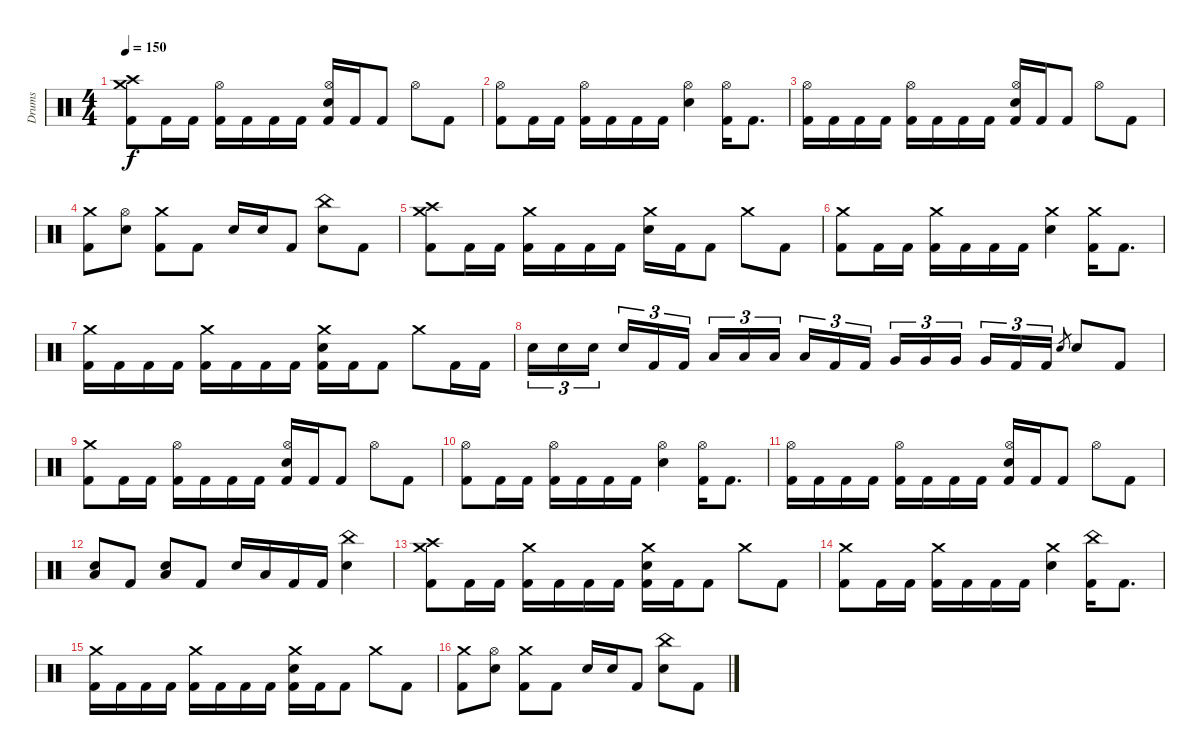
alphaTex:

\track ("Drums" "Drums") {instrument percussion}
\staff {score}
\articulation defaults
\ts (4 4)
\tempo 150
\clef neutral
\ks c
("Crash medium (hit)" "Crash high (hit)" "Kick (hit) 2").8{dy f} "Kick (hit) 2".16 "Kick (hit) 2".16 ("Hi-Hat (open)" "Kick (hit) 2").16 "Kick (hit) 2".16 "Kick (hit) 2".16 "Kick (hit) 2".16 ("Hi-Hat (open)" "Electric Snare (hit)" "Kick (hit) 2").16 "Kick (hit) 2".16 "Kick (hit) 2".8 "Hi-Hat (open)".8 "Kick (hit) 2".8 |
("Hi-Hat (open)" "Kick (hit) 2").8 "Kick (hit) 2".16 "Kick (hit) 2".16 ("Hi-Hat (open)" "Kick (hit) 2").16 "Kick (hit) 2".16 "Kick (hit) 2".16 "Kick (hit) 2".16 ("Hi-Hat (open)" "Electric Snare (hit)").4 ("Hi-Hat (open)" "Kick (hit) 2").16 "Kick (hit) 2".8{d} |
("Hi-Hat (open)" "Kick (hit) 2").16 "Kick (hit) 2".16 "Kick (hit) 2".16 "Kick (hit) 2".16 ("Hi-Hat (open)" "Kick (hit) 2").16 "Kick (hit) 2".16 "Kick (hit) 2".16 "Kick (hit) 2".16 ("Hi-Hat (open)" "Electric Snare (hit)" "Kick (hit) 2").16 "Kick (hit) 2".16 "Kick (hit) 2".8 "Hi-Hat (open)".8 "Kick (hit) 2".8 |
("Crash medium (hit)" "Kick (hit) 2").8 ("Hi-Hat (open)" "Electric Snare (hit)").8 ("Crash medium (hit)" "Kick (hit) 2").8 "Kick (hit) 2".8 "Electric Snare (hit)".16 "Electric Snare (hit)".16 "Kick (hit) 2".8 ("China (hit)" "Electric Snare (hit)").8 "Kick (hit) 2".8 |
("Crash medium (hit)" "Crash high (hit)" "Kick (hit) 2").8 "Kick (hit) 2".16 "Kick (hit) 2".16 ("Crash medium (hit)" "Kick (hit) 2").16 "Kick (hit) 2".16 "Kick (hit) 2".16 "Kick (hit) 2".16 ("Crash medium (hit)" "Electric Snare (hit)").16 "Kick (hit) 2".16 "Kick (hit) 2".8 "Crash medium (hit)".8 "Kick (hit) 2".8 |
("Crash medium (hit)" "Kick (hit) 2").8 "Kick (hit) 2".16 "Kick (hit) 2".16 ("Crash medium (hit)" "Kick (hit) 2").16 "Kick (hit) 2".16 "Kick (hit) 2".16 "Kick (hit) 2".16 ("Crash medium (hit)" "Electric Snare (hit)").4 ("Crash medium (hit)" "Kick (hit) 2").16 "Kick (hit) 2".8{d} |
("Crash medium (hit)" "Kick (hit) 2").16 "Kick (hit) 2".16 "Kick (hit) 2".16 "Kick (hit) 2".16 ("Crash medium (hit)" "Kick (hit) 2").16 "Kick (hit) 2".16 "Kick (hit) 2".16 "Kick (hit) 2".16 ("Crash medium (hit)" "Electric Snare (hit)" "Kick (hit) 2").16 "Kick (hit) 2".16 "Kick (hit) 2".8 "Crash medium (hit)".8 "Kick (hit) 2".16 "Kick (hit) 2".16 |
"Electric Snare (hit)".16{tu (3 2)} "Electric Snare (hit)".16{tu (3 2)} "Electric Snare (hit)".16{tu (3 2) beam splitsecondary} "Electric Snare (hit)".16{tu (3 2)} "Kick (hit) 2".16{tu (3 2)} "Kick (hit) 2".16{tu (3 2)} "Low Tom (hit)".16{tu (3 2)} "Low Tom (hit)".16{tu (3 2)} "Low Tom (hit)".16{tu (3 2) beam splitsecondary} "Low Tom (hit)".16{tu (3 2)} "Kick (hit) 2".16{tu (3 2)} "Kick (hit) 2".16{tu (3 2)} "Very Low Tom (hit)".16{tu (3 2)} "Very Low Tom (hit)".16{tu (3 2)} "Very Low Tom (hit)".16{tu (3 2) beam splitsecondary} "Very Low Tom (hit)".16{tu (3 2)} "Kick (hit) 2".16{tu (3 2)} "Kick (hit) 2".16{tu (3 2)} "Electric Snare (hit)".8{gr} "Electric Snare (hit)".8 "Kick (hit) 2".8 |
("Crash medium (hit)" "Kick (hit) 2").8 "Kick (hit) 2".16 "Kick (hit) 2".16 ("Hi-Hat (open)" "Kick (hit) 2").16 "Kick (hit) 2".16 "Kick (hit) 2".16 "Kick (hit) 2".16 ("Hi-Hat (open)" "Electric Snare (hit)" "Kick (hit) 2").16 "Kick (hit) 2".16 "Kick (hit) 2".8 "Hi-Hat (open)".8 "Kick (hit) 2".8 |
("Hi-Hat (open)" "Kick (hit) 2").8 "Kick (hit) 2".16 "Kick (hit) 2".16 ("Hi-Hat (open)" "Kick (hit) 2").16 "Kick (hit) 2".16 "Kick (hit) 2".16 "Kick (hit) 2".16 ("Hi-Hat (open)" "Electric Snare (hit)").4 ("Hi-Hat (open)" "Kick (hit) 2").16 "Kick (hit) 2".8{d} |
("Hi-Hat (open)" "Kick (hit) 2").16 "Kick (hit) 2".16 "Kick (hit) 2".16 "Kick (hit) 2".16 ("Hi-Hat (open)" "Kick (hit) 2").16 "Kick (hit) 2".16 "Kick (hit) 2".16 "Kick (hit) 2".16 ("Hi-Hat (open)" "Electric Snare (hit)" "Kick (hit) 2").16 "Kick (hit) 2".16 "Kick (hit) 2".8 "Hi-Hat (open)".8 "Kick (hit) 2".8 |
("Low Floor Tom (hit)" "Electric Snare (hit)").8 "Kick (hit) 2".8 ("Low Floor Tom (hit)" "Electric Snare (hit)").8 "Kick (hit) 2".8 "Electric Snare (hit)".16 "Low Floor Tom (hit)".16 "Kick (hit) 2".16 "Kick (hit) 2".16 ("China (hit)" "Electric Snare (hit)").4 |
("Crash medium (hit)" "Crash high (hit)" "Kick (hit) 2").8 "Kick (hit) 2".16 "Kick (hit) 2".16 ("Crash medium (hit)" "Kick (hit) 2").16 "Kick (hit) 2".16 "Kick (hit) 2".16 "Kick (hit) 2".16 ("Crash medium (hit)" "Electric Snare (hit)" "Kick (hit) 2").16 "Kick (hit) 2".16 "Kick (hit) 2".8 "Crash medium (hit)".8 "Kick (hit) 2".8 |
("Crash medium (hit)" "Kick (hit) 2").8 "Kick (hit) 2".16 "Kick (hit) 2".16 ("Crash medium (hit)" "Kick (hit) 2").16 "Kick (hit) 2".16 "Kick (hit) 2".16 "Kick (hit) 2".16 ("Crash medium (hit)" "Electric Snare (hit)").4 ("China (hit)" "Kick (hit) 2").16 "Kick (hit) 2".8{d} |
("Crash medium (hit)" "Kick (hit) 2").16 "Kick (hit) 2".16 "Kick (hit) 2".16 "Kick (hit) 2".16 ("Crash medium (hit)" "Kick (hit) 2").16 "Kick (hit) 2".16 "Kick (hit) 2".16 "Kick (hit) 2".16 ("Crash medium (hit)" "Electric Snare (hit)" "Kick (hit) 2").16 "Kick (hit) 2".16 "Kick (hit) 2".8 "Crash medium (hit)".8 "Kick (hit) 2".8 |
("Crash medium (hit)" "Kick (hit) 2").8 ("Hi-Hat (open)" "Electric Snare (hit)").8 ("Crash medium (hit)" "Kick (hit) 2").8 "Kick (hit) 2".8 "Electric Snare (hit)".16 "Electric Snare (hit)".16 "Kick (hit) 2".8 ("China (hit)" "Electric Snare (hit)").8 "Kick (hit) 2".8
